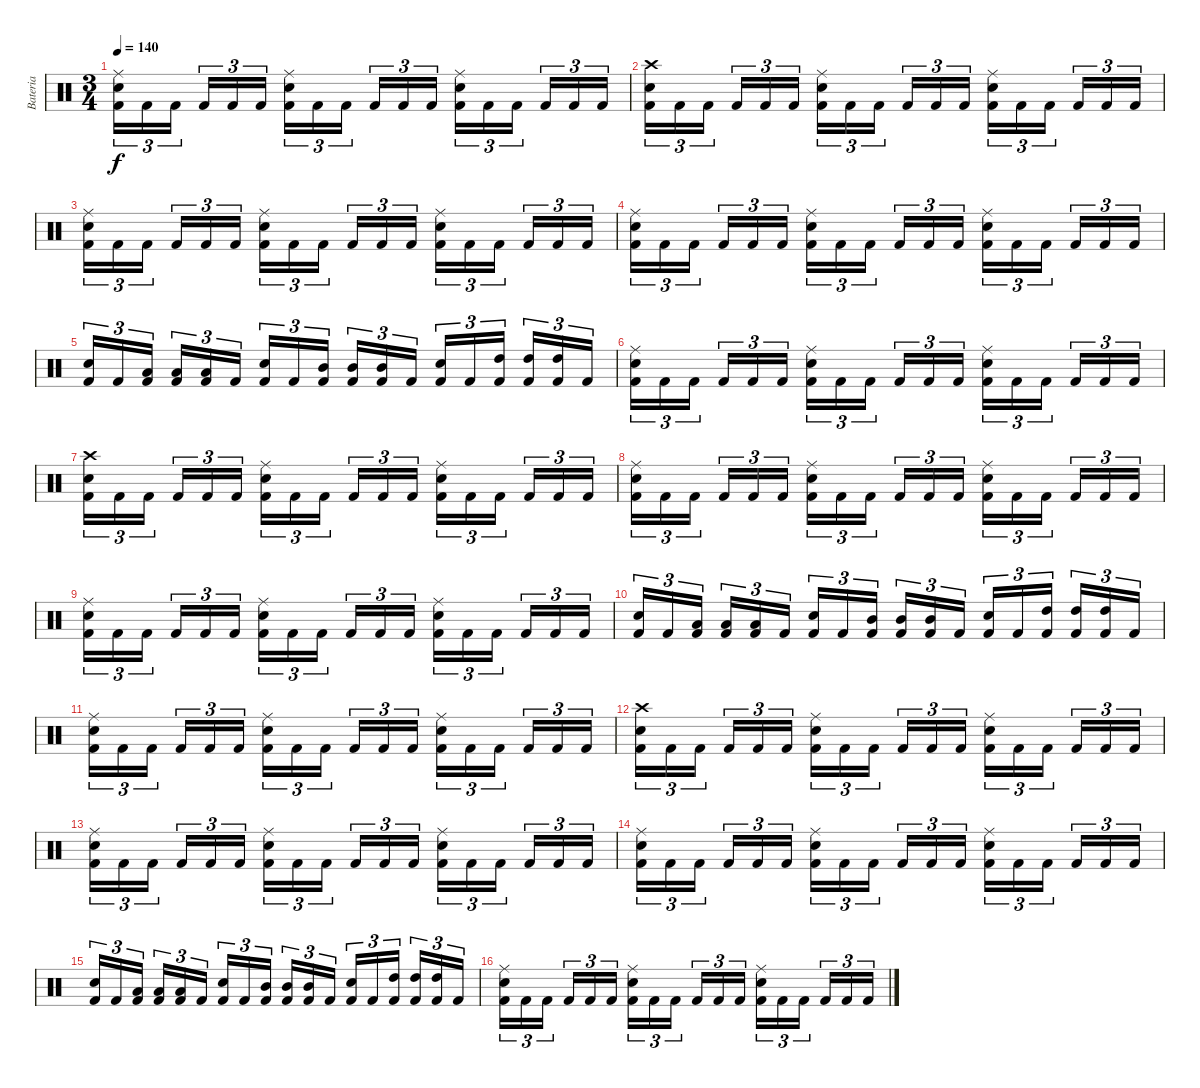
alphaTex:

\track ("Bateria" "Bateria") {instrument percussion}
\staff {score}
\articulation defaults
\ts (3 4)
\tempo 140
\clef neutral
\ks c
("Kick (hit) 2" "Electric Snare (hit)" "Ride (middle)").16{tu (3 2) dy f} "Kick (hit) 2".16{tu (3 2)} "Kick (hit) 2".16{tu (3 2)} "Kick (hit) 2".16{tu (3 2)} "Kick (hit) 2".16{tu (3 2)} "Kick (hit) 2".16{tu (3 2)} ("Kick (hit) 2" "Electric Snare (hit)" "Ride (middle)").16{tu (3 2)} "Kick (hit) 2".16{tu (3 2)} "Kick (hit) 2".16{tu (3 2)} "Kick (hit) 2".16{tu (3 2)} "Kick (hit) 2".16{tu (3 2)} "Kick (hit) 2".16{tu (3 2)} ("Kick (hit) 2" "Electric Snare (hit)" "Ride (middle)").16{tu (3 2)} "Kick (hit) 2".16{tu (3 2)} "Kick (hit) 2".16{tu (3 2)} "Kick (hit) 2".16{tu (3 2)} "Kick (hit) 2".16{tu (3 2)} "Kick (hit) 2".16{tu (3 2)} |
("Kick (hit) 2" "Electric Snare (hit)" "Crash high (hit)").16{tu (3 2)} "Kick (hit) 2".16{tu (3 2)} "Kick (hit) 2".16{tu (3 2)} "Kick (hit) 2".16{tu (3 2)} "Kick (hit) 2".16{tu (3 2)} "Kick (hit) 2".16{tu (3 2)} ("Kick (hit) 2" "Electric Snare (hit)" "Ride (middle)").16{tu (3 2)} "Kick (hit) 2".16{tu (3 2)} "Kick (hit) 2".16{tu (3 2)} "Kick (hit) 2".16{tu (3 2)} "Kick (hit) 2".16{tu (3 2)} "Kick (hit) 2".16{tu (3 2)} ("Kick (hit) 2" "Electric Snare (hit)" "Ride (middle)").16{tu (3 2)} "Kick (hit) 2".16{tu (3 2)} "Kick (hit) 2".16{tu (3 2)} "Kick (hit) 2".16{tu (3 2)} "Kick (hit) 2".16{tu (3 2)} "Kick (hit) 2".16{tu (3 2)} |
("Kick (hit) 2" "Electric Snare (hit)" "Ride (middle)").16{tu (3 2)} "Kick (hit) 2".16{tu (3 2)} "Kick (hit) 2".16{tu (3 2)} "Kick (hit) 2".16{tu (3 2)} "Kick (hit) 2".16{tu (3 2)} "Kick (hit) 2".16{tu (3 2)} ("Kick (hit) 2" "Electric Snare (hit)" "Ride (middle)").16{tu (3 2)} "Kick (hit) 2".16{tu (3 2)} "Kick (hit) 2".16{tu (3 2)} "Kick (hit) 2".16{tu (3 2)} "Kick (hit) 2".16{tu (3 2)} "Kick (hit) 2".16{tu (3 2)} ("Kick (hit) 2" "Electric Snare (hit)" "Ride (middle)").16{tu (3 2)} "Kick (hit) 2".16{tu (3 2)} "Kick (hit) 2".16{tu (3 2)} "Kick (hit) 2".16{tu (3 2)} "Kick (hit) 2".16{tu (3 2)} "Kick (hit) 2".16{tu (3 2)} |
("Kick (hit) 2" "Electric Snare (hit)" "Ride (middle)").16{tu (3 2)} "Kick (hit) 2".16{tu (3 2)} "Kick (hit) 2".16{tu (3 2)} "Kick (hit) 2".16{tu (3 2)} "Kick (hit) 2".16{tu (3 2)} "Kick (hit) 2".16{tu (3 2)} ("Kick (hit) 2" "Electric Snare (hit)" "Ride (middle)").16{tu (3 2)} "Kick (hit) 2".16{tu (3 2)} "Kick (hit) 2".16{tu (3 2)} "Kick (hit) 2".16{tu (3 2)} "Kick (hit) 2".16{tu (3 2)} "Kick (hit) 2".16{tu (3 2)} ("Kick (hit) 2" "Electric Snare (hit)" "Ride (middle)").16{tu (3 2)} "Kick (hit) 2".16{tu (3 2)} "Kick (hit) 2".16{tu (3 2)} "Kick (hit) 2".16{tu (3 2)} "Kick (hit) 2".16{tu (3 2)} "Kick (hit) 2".16{tu (3 2)} |
("Kick (hit) 2" "Electric Snare (hit)").16{tu (3 2)} "Kick (hit) 2".16{tu (3 2)} ("Kick (hit) 2" "Low Tom (hit)").16{tu (3 2)} ("Kick (hit) 2" "Low Tom (hit)").16{tu (3 2)} ("Kick (hit) 2" "Low Tom (hit)").16{tu (3 2)} "Kick (hit) 2".16{tu (3 2)} ("Kick (hit) 2" "Electric Snare (hit)").16{tu (3 2)} "Kick (hit) 2".16{tu (3 2)} ("Kick (hit) 2" "Mid Tom (hit)").16{tu (3 2)} ("Kick (hit) 2" "Mid Tom (hit)").16{tu (3 2)} ("Kick (hit) 2" "Mid Tom (hit)").16{tu (3 2)} "Kick (hit) 2".16{tu (3 2)} ("Kick (hit) 2" "Electric Snare (hit)").16{tu (3 2)} "Kick (hit) 2".16{tu (3 2)} ("Kick (hit) 2" "High Tom (hit)").16{tu (3 2)} ("Kick (hit) 2" "High Tom (hit)").16{tu (3 2)} ("Kick (hit) 2" "High Tom (hit)").16{tu (3 2)} "Kick (hit) 2".16{tu (3 2)} |
("Kick (hit) 2" "Electric Snare (hit)" "Ride (middle)").16{tu (3 2)} "Kick (hit) 2".16{tu (3 2)} "Kick (hit) 2".16{tu (3 2)} "Kick (hit) 2".16{tu (3 2)} "Kick (hit) 2".16{tu (3 2)} "Kick (hit) 2".16{tu (3 2)} ("Kick (hit) 2" "Electric Snare (hit)" "Ride (middle)").16{tu (3 2)} "Kick (hit) 2".16{tu (3 2)} "Kick (hit) 2".16{tu (3 2)} "Kick (hit) 2".16{tu (3 2)} "Kick (hit) 2".16{tu (3 2)} "Kick (hit) 2".16{tu (3 2)} ("Kick (hit) 2" "Electric Snare (hit)" "Ride (middle)").16{tu (3 2)} "Kick (hit) 2".16{tu (3 2)} "Kick (hit) 2".16{tu (3 2)} "Kick (hit) 2".16{tu (3 2)} "Kick (hit) 2".16{tu (3 2)} "Kick (hit) 2".16{tu (3 2)} |
("Kick (hit) 2" "Electric Snare (hit)" "Crash high (hit)").16{tu (3 2)} "Kick (hit) 2".16{tu (3 2)} "Kick (hit) 2".16{tu (3 2)} "Kick (hit) 2".16{tu (3 2)} "Kick (hit) 2".16{tu (3 2)} "Kick (hit) 2".16{tu (3 2)} ("Kick (hit) 2" "Electric Snare (hit)" "Ride (middle)").16{tu (3 2)} "Kick (hit) 2".16{tu (3 2)} "Kick (hit) 2".16{tu (3 2)} "Kick (hit) 2".16{tu (3 2)} "Kick (hit) 2".16{tu (3 2)} "Kick (hit) 2".16{tu (3 2)} ("Kick (hit) 2" "Electric Snare (hit)" "Ride (middle)").16{tu (3 2)} "Kick (hit) 2".16{tu (3 2)} "Kick (hit) 2".16{tu (3 2)} "Kick (hit) 2".16{tu (3 2)} "Kick (hit) 2".16{tu (3 2)} "Kick (hit) 2".16{tu (3 2)} |
("Kick (hit) 2" "Electric Snare (hit)" "Ride (middle)").16{tu (3 2)} "Kick (hit) 2".16{tu (3 2)} "Kick (hit) 2".16{tu (3 2)} "Kick (hit) 2".16{tu (3 2)} "Kick (hit) 2".16{tu (3 2)} "Kick (hit) 2".16{tu (3 2)} ("Kick (hit) 2" "Electric Snare (hit)" "Ride (middle)").16{tu (3 2)} "Kick (hit) 2".16{tu (3 2)} "Kick (hit) 2".16{tu (3 2)} "Kick (hit) 2".16{tu (3 2)} "Kick (hit) 2".16{tu (3 2)} "Kick (hit) 2".16{tu (3 2)} ("Kick (hit) 2" "Electric Snare (hit)" "Ride (middle)").16{tu (3 2)} "Kick (hit) 2".16{tu (3 2)} "Kick (hit) 2".16{tu (3 2)} "Kick (hit) 2".16{tu (3 2)} "Kick (hit) 2".16{tu (3 2)} "Kick (hit) 2".16{tu (3 2)} |
("Kick (hit) 2" "Electric Snare (hit)" "Ride (middle)").16{tu (3 2)} "Kick (hit) 2".16{tu (3 2)} "Kick (hit) 2".16{tu (3 2)} "Kick (hit) 2".16{tu (3 2)} "Kick (hit) 2".16{tu (3 2)} "Kick (hit) 2".16{tu (3 2)} ("Kick (hit) 2" "Electric Snare (hit)" "Ride (middle)").16{tu (3 2)} "Kick (hit) 2".16{tu (3 2)} "Kick (hit) 2".16{tu (3 2)} "Kick (hit) 2".16{tu (3 2)} "Kick (hit) 2".16{tu (3 2)} "Kick (hit) 2".16{tu (3 2)} ("Kick (hit) 2" "Electric Snare (hit)" "Ride (middle)").16{tu (3 2)} "Kick (hit) 2".16{tu (3 2)} "Kick (hit) 2".16{tu (3 2)} "Kick (hit) 2".16{tu (3 2)} "Kick (hit) 2".16{tu (3 2)} "Kick (hit) 2".16{tu (3 2)} |
("Kick (hit) 2" "Electric Snare (hit)").16{tu (3 2)} "Kick (hit) 2".16{tu (3 2)} ("Kick (hit) 2" "Low Tom (hit)").16{tu (3 2)} ("Kick (hit) 2" "Low Tom (hit)").16{tu (3 2)} ("Kick (hit) 2" "Low Tom (hit)").16{tu (3 2)} "Kick (hit) 2".16{tu (3 2)} ("Kick (hit) 2" "Electric Snare (hit)").16{tu (3 2)} "Kick (hit) 2".16{tu (3 2)} ("Kick (hit) 2" "Mid Tom (hit)").16{tu (3 2)} ("Kick (hit) 2" "Mid Tom (hit)").16{tu (3 2)} ("Kick (hit) 2" "Mid Tom (hit)").16{tu (3 2)} "Kick (hit) 2".16{tu (3 2)} ("Kick (hit) 2" "Electric Snare (hit)").16{tu (3 2)} "Kick (hit) 2".16{tu (3 2)} ("Kick (hit) 2" "High Tom (hit)").16{tu (3 2)} ("Kick (hit) 2" "High Tom (hit)").16{tu (3 2)} ("Kick (hit) 2" "High Tom (hit)").16{tu (3 2)} "Kick (hit) 2".16{tu (3 2)} |
("Kick (hit) 2" "Electric Snare (hit)" "Ride (middle)").16{tu (3 2)} "Kick (hit) 2".16{tu (3 2)} "Kick (hit) 2".16{tu (3 2)} "Kick (hit) 2".16{tu (3 2)} "Kick (hit) 2".16{tu (3 2)} "Kick (hit) 2".16{tu (3 2)} ("Kick (hit) 2" "Electric Snare (hit)" "Ride (middle)").16{tu (3 2)} "Kick (hit) 2".16{tu (3 2)} "Kick (hit) 2".16{tu (3 2)} "Kick (hit) 2".16{tu (3 2)} "Kick (hit) 2".16{tu (3 2)} "Kick (hit) 2".16{tu (3 2)} ("Kick (hit) 2" "Electric Snare (hit)" "Ride (middle)").16{tu (3 2)} "Kick (hit) 2".16{tu (3 2)} "Kick (hit) 2".16{tu (3 2)} "Kick (hit) 2".16{tu (3 2)} "Kick (hit) 2".16{tu (3 2)} "Kick (hit) 2".16{tu (3 2)} |
("Kick (hit) 2" "Electric Snare (hit)" "Crash high (hit)").16{tu (3 2)} "Kick (hit) 2".16{tu (3 2)} "Kick (hit) 2".16{tu (3 2)} "Kick (hit) 2".16{tu (3 2)} "Kick (hit) 2".16{tu (3 2)} "Kick (hit) 2".16{tu (3 2)} ("Kick (hit) 2" "Electric Snare (hit)" "Ride (middle)").16{tu (3 2)} "Kick (hit) 2".16{tu (3 2)} "Kick (hit) 2".16{tu (3 2)} "Kick (hit) 2".16{tu (3 2)} "Kick (hit) 2".16{tu (3 2)} "Kick (hit) 2".16{tu (3 2)} ("Kick (hit) 2" "Electric Snare (hit)" "Ride (middle)").16{tu (3 2)} "Kick (hit) 2".16{tu (3 2)} "Kick (hit) 2".16{tu (3 2)} "Kick (hit) 2".16{tu (3 2)} "Kick (hit) 2".16{tu (3 2)} "Kick (hit) 2".16{tu (3 2)} |
("Kick (hit) 2" "Electric Snare (hit)" "Ride (middle)").16{tu (3 2)} "Kick (hit) 2".16{tu (3 2)} "Kick (hit) 2".16{tu (3 2)} "Kick (hit) 2".16{tu (3 2)} "Kick (hit) 2".16{tu (3 2)} "Kick (hit) 2".16{tu (3 2)} ("Kick (hit) 2" "Electric Snare (hit)" "Ride (middle)").16{tu (3 2)} "Kick (hit) 2".16{tu (3 2)} "Kick (hit) 2".16{tu (3 2)} "Kick (hit) 2".16{tu (3 2)} "Kick (hit) 2".16{tu (3 2)} "Kick (hit) 2".16{tu (3 2)} ("Kick (hit) 2" "Electric Snare (hit)" "Ride (middle)").16{tu (3 2)} "Kick (hit) 2".16{tu (3 2)} "Kick (hit) 2".16{tu (3 2)} "Kick (hit) 2".16{tu (3 2)} "Kick (hit) 2".16{tu (3 2)} "Kick (hit) 2".16{tu (3 2)} |
("Kick (hit) 2" "Electric Snare (hit)" "Ride (middle)").16{tu (3 2)} "Kick (hit) 2".16{tu (3 2)} "Kick (hit) 2".16{tu (3 2)} "Kick (hit) 2".16{tu (3 2)} "Kick (hit) 2".16{tu (3 2)} "Kick (hit) 2".16{tu (3 2)} ("Kick (hit) 2" "Electric Snare (hit)" "Ride (middle)").16{tu (3 2)} "Kick (hit) 2".16{tu (3 2)} "Kick (hit) 2".16{tu (3 2)} "Kick (hit) 2".16{tu (3 2)} "Kick (hit) 2".16{tu (3 2)} "Kick (hit) 2".16{tu (3 2)} ("Kick (hit) 2" "Electric Snare (hit)" "Ride (middle)").16{tu (3 2)} "Kick (hit) 2".16{tu (3 2)} "Kick (hit) 2".16{tu (3 2)} "Kick (hit) 2".16{tu (3 2)} "Kick (hit) 2".16{tu (3 2)} "Kick (hit) 2".16{tu (3 2)} |
("Kick (hit) 2" "Electric Snare (hit)").16{tu (3 2)} "Kick (hit) 2".16{tu (3 2)} ("Kick (hit) 2" "Low Tom (hit)").16{tu (3 2)} ("Kick (hit) 2" "Low Tom (hit)").16{tu (3 2)} ("Kick (hit) 2" "Low Tom (hit)").16{tu (3 2)} "Kick (hit) 2".16{tu (3 2)} ("Kick (hit) 2" "Electric Snare (hit)").16{tu (3 2)} "Kick (hit) 2".16{tu (3 2)} ("Kick (hit) 2" "Mid Tom (hit)").16{tu (3 2)} ("Kick (hit) 2" "Mid Tom (hit)").16{tu (3 2)} ("Kick (hit) 2" "Mid Tom (hit)").16{tu (3 2)} "Kick (hit) 2".16{tu (3 2)} ("Kick (hit) 2" "Electric Snare (hit)").16{tu (3 2)} "Kick (hit) 2".16{tu (3 2)} ("Kick (hit) 2" "High Tom (hit)").16{tu (3 2)} ("Kick (hit) 2" "High Tom (hit)").16{tu (3 2)} ("Kick (hit) 2" "High Tom (hit)").16{tu (3 2)} "Kick (hit) 2".16{tu (3 2)} |
("Kick (hit) 2" "Electric Snare (hit)" "Ride (middle)").16{tu (3 2)} "Kick (hit) 2".16{tu (3 2)} "Kick (hit) 2".16{tu (3 2)} "Kick (hit) 2".16{tu (3 2)} "Kick (hit) 2".16{tu (3 2)} "Kick (hit) 2".16{tu (3 2)} ("Kick (hit) 2" "Electric Snare (hit)" "Ride (middle)").16{tu (3 2)} "Kick (hit) 2".16{tu (3 2)} "Kick (hit) 2".16{tu (3 2)} "Kick (hit) 2".16{tu (3 2)} "Kick (hit) 2".16{tu (3 2)} "Kick (hit) 2".16{tu (3 2)} ("Kick (hit) 2" "Electric Snare (hit)" "Ride (middle)").16{tu (3 2)} "Kick (hit) 2".16{tu (3 2)} "Kick (hit) 2".16{tu (3 2)} "Kick (hit) 2".16{tu (3 2)} "Kick (hit) 2".16{tu (3 2)} "Kick (hit) 2".16{tu (3 2)}
